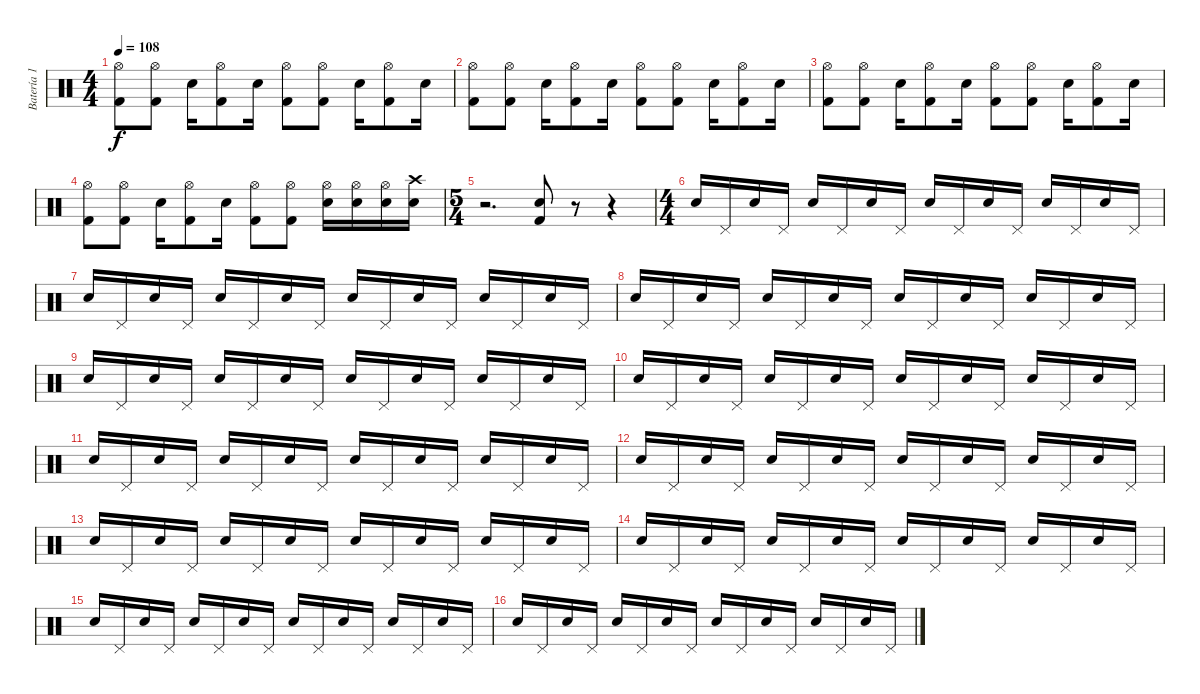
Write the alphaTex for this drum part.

\track ("Batería 1" "Batería 1") {instrument percussion}
\staff {score}
\articulation defaults
\ts (4 4)
\tempo 108
\clef neutral
\ks c
("Hi-Hat (open)" "Kick (hit) 2").8{dy f} ("Hi-Hat (open)" "Kick (hit) 2").8 "Snare (hit) 2".16 ("Hi-Hat (open)" "Kick (hit) 2").8 "Snare (hit) 2".16 ("Hi-Hat (open)" "Kick (hit) 2").8 ("Hi-Hat (open)" "Kick (hit) 2").8 "Snare (hit) 2".16 ("Hi-Hat (open)" "Kick (hit) 2").8 "Snare (hit) 2".16 |
("Hi-Hat (open)" "Kick (hit) 2").8 ("Hi-Hat (open)" "Kick (hit) 2").8 "Snare (hit) 2".16 ("Hi-Hat (open)" "Kick (hit) 2").8 "Snare (hit) 2".16 ("Hi-Hat (open)" "Kick (hit) 2").8 ("Hi-Hat (open)" "Kick (hit) 2").8 "Snare (hit) 2".16 ("Hi-Hat (open)" "Kick (hit) 2").8 "Snare (hit) 2".16 |
("Hi-Hat (open)" "Kick (hit) 2").8 ("Hi-Hat (open)" "Kick (hit) 2").8 "Snare (hit) 2".16 ("Hi-Hat (open)" "Kick (hit) 2").8 "Snare (hit) 2".16 ("Hi-Hat (open)" "Kick (hit) 2").8 ("Hi-Hat (open)" "Kick (hit) 2").8 "Snare (hit) 2".16 ("Hi-Hat (open)" "Kick (hit) 2").8 "Snare (hit) 2".16 |
("Hi-Hat (open)" "Kick (hit) 2").8 ("Hi-Hat (open)" "Kick (hit) 2").8 "Snare (hit) 2".16 ("Hi-Hat (open)" "Kick (hit) 2").8 "Snare (hit) 2".16 ("Hi-Hat (open)" "Kick (hit) 2").8 ("Hi-Hat (open)" "Kick (hit) 2").8 ("Hi-Hat (open)" "Snare (hit) 2").16 ("Hi-Hat (open)" "Snare (hit) 2").16 ("Hi-Hat (open)" "Snare (hit) 2").16 ("Crash high (hit)" "Snare (hit) 2").16 |
\ts (5 4)
r.2{d} ("Snare (hit) 2" "Kick (hit) 2").8 r.8 r.4 |
\ts (4 4)
"Snare (hit) 2".16 "Pedal Hi-Hat (hit)".16 "Snare (hit) 2".16 "Pedal Hi-Hat (hit)".16 "Snare (hit) 2".16 "Pedal Hi-Hat (hit)".16 "Snare (hit) 2".16 "Pedal Hi-Hat (hit)".16 "Snare (hit) 2".16 "Pedal Hi-Hat (hit)".16 "Snare (hit) 2".16 "Pedal Hi-Hat (hit)".16 "Snare (hit) 2".16 "Pedal Hi-Hat (hit)".16 "Snare (hit) 2".16 "Pedal Hi-Hat (hit)".16 |
"Snare (hit) 2".16 "Pedal Hi-Hat (hit)".16 "Snare (hit) 2".16 "Pedal Hi-Hat (hit)".16 "Snare (hit) 2".16 "Pedal Hi-Hat (hit)".16 "Snare (hit) 2".16 "Pedal Hi-Hat (hit)".16 "Snare (hit) 2".16 "Pedal Hi-Hat (hit)".16 "Snare (hit) 2".16 "Pedal Hi-Hat (hit)".16 "Snare (hit) 2".16 "Pedal Hi-Hat (hit)".16 "Snare (hit) 2".16 "Pedal Hi-Hat (hit)".16 |
"Snare (hit) 2".16 "Pedal Hi-Hat (hit)".16 "Snare (hit) 2".16 "Pedal Hi-Hat (hit)".16 "Snare (hit) 2".16 "Pedal Hi-Hat (hit)".16 "Snare (hit) 2".16 "Pedal Hi-Hat (hit)".16 "Snare (hit) 2".16 "Pedal Hi-Hat (hit)".16 "Snare (hit) 2".16 "Pedal Hi-Hat (hit)".16 "Snare (hit) 2".16 "Pedal Hi-Hat (hit)".16 "Snare (hit) 2".16 "Pedal Hi-Hat (hit)".16 |
"Snare (hit) 2".16 "Pedal Hi-Hat (hit)".16 "Snare (hit) 2".16 "Pedal Hi-Hat (hit)".16 "Snare (hit) 2".16 "Pedal Hi-Hat (hit)".16 "Snare (hit) 2".16 "Pedal Hi-Hat (hit)".16 "Snare (hit) 2".16 "Pedal Hi-Hat (hit)".16 "Snare (hit) 2".16 "Pedal Hi-Hat (hit)".16 "Snare (hit) 2".16 "Pedal Hi-Hat (hit)".16 "Snare (hit) 2".16 "Pedal Hi-Hat (hit)".16 |
"Snare (hit) 2".16 "Pedal Hi-Hat (hit)".16 "Snare (hit) 2".16 "Pedal Hi-Hat (hit)".16 "Snare (hit) 2".16 "Pedal Hi-Hat (hit)".16 "Snare (hit) 2".16 "Pedal Hi-Hat (hit)".16 "Snare (hit) 2".16 "Pedal Hi-Hat (hit)".16 "Snare (hit) 2".16 "Pedal Hi-Hat (hit)".16 "Snare (hit) 2".16 "Pedal Hi-Hat (hit)".16 "Snare (hit) 2".16 "Pedal Hi-Hat (hit)".16 |
"Snare (hit) 2".16 "Pedal Hi-Hat (hit)".16 "Snare (hit) 2".16 "Pedal Hi-Hat (hit)".16 "Snare (hit) 2".16 "Pedal Hi-Hat (hit)".16 "Snare (hit) 2".16 "Pedal Hi-Hat (hit)".16 "Snare (hit) 2".16 "Pedal Hi-Hat (hit)".16 "Snare (hit) 2".16 "Pedal Hi-Hat (hit)".16 "Snare (hit) 2".16 "Pedal Hi-Hat (hit)".16 "Snare (hit) 2".16 "Pedal Hi-Hat (hit)".16 |
"Snare (hit) 2".16 "Pedal Hi-Hat (hit)".16 "Snare (hit) 2".16 "Pedal Hi-Hat (hit)".16 "Snare (hit) 2".16 "Pedal Hi-Hat (hit)".16 "Snare (hit) 2".16 "Pedal Hi-Hat (hit)".16 "Snare (hit) 2".16 "Pedal Hi-Hat (hit)".16 "Snare (hit) 2".16 "Pedal Hi-Hat (hit)".16 "Snare (hit) 2".16 "Pedal Hi-Hat (hit)".16 "Snare (hit) 2".16 "Pedal Hi-Hat (hit)".16 |
"Snare (hit) 2".16 "Pedal Hi-Hat (hit)".16 "Snare (hit) 2".16 "Pedal Hi-Hat (hit)".16 "Snare (hit) 2".16 "Pedal Hi-Hat (hit)".16 "Snare (hit) 2".16 "Pedal Hi-Hat (hit)".16 "Snare (hit) 2".16 "Pedal Hi-Hat (hit)".16 "Snare (hit) 2".16 "Pedal Hi-Hat (hit)".16 "Snare (hit) 2".16 "Pedal Hi-Hat (hit)".16 "Snare (hit) 2".16 "Pedal Hi-Hat (hit)".16 |
"Snare (hit) 2".16 "Pedal Hi-Hat (hit)".16 "Snare (hit) 2".16 "Pedal Hi-Hat (hit)".16 "Snare (hit) 2".16 "Pedal Hi-Hat (hit)".16 "Snare (hit) 2".16 "Pedal Hi-Hat (hit)".16 "Snare (hit) 2".16 "Pedal Hi-Hat (hit)".16 "Snare (hit) 2".16 "Pedal Hi-Hat (hit)".16 "Snare (hit) 2".16 "Pedal Hi-Hat (hit)".16 "Snare (hit) 2".16 "Pedal Hi-Hat (hit)".16 |
"Snare (hit) 2".16 "Pedal Hi-Hat (hit)".16 "Snare (hit) 2".16 "Pedal Hi-Hat (hit)".16 "Snare (hit) 2".16 "Pedal Hi-Hat (hit)".16 "Snare (hit) 2".16 "Pedal Hi-Hat (hit)".16 "Snare (hit) 2".16 "Pedal Hi-Hat (hit)".16 "Snare (hit) 2".16 "Pedal Hi-Hat (hit)".16 "Snare (hit) 2".16 "Pedal Hi-Hat (hit)".16 "Snare (hit) 2".16 "Pedal Hi-Hat (hit)".16 |
"Snare (hit) 2".16 "Pedal Hi-Hat (hit)".16 "Snare (hit) 2".16 "Pedal Hi-Hat (hit)".16 "Snare (hit) 2".16 "Pedal Hi-Hat (hit)".16 "Snare (hit) 2".16 "Pedal Hi-Hat (hit)".16 "Snare (hit) 2".16 "Pedal Hi-Hat (hit)".16 "Snare (hit) 2".16 "Pedal Hi-Hat (hit)".16 "Snare (hit) 2".16 "Pedal Hi-Hat (hit)".16 "Snare (hit) 2".16 "Pedal Hi-Hat (hit)".16
